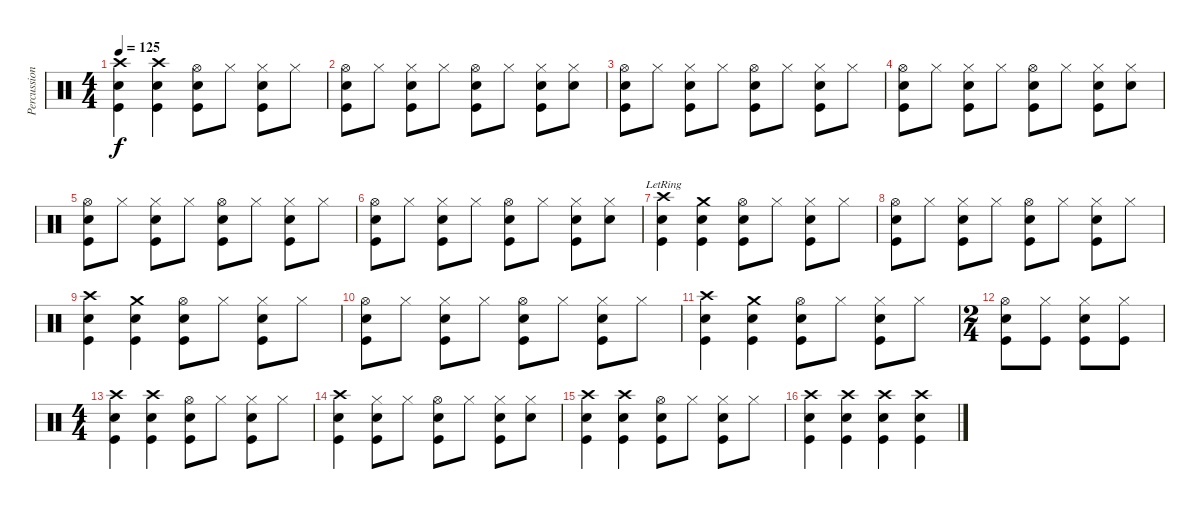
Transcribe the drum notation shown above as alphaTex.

\track ("Percussion" "Percussion") {instrument percussion}
\staff {score}
\articulation defaults
\ts (4 4)
\tempo 125
\clef neutral
\ks c
("Crash high (hit)" "Snare (hit) 2" "Kick (hit)").4{dy f} ("Crash high (hit)" "Snare (hit) 2" "Kick (hit)").4 ("Hi-Hat (open)" "Snare (hit) 2" "Kick (hit)").8 "Hi-Hat (closed)".8 ("Hi-Hat (closed)" "Snare (hit) 2" "Kick (hit)").8 "Hi-Hat (closed)".8 |
("Hi-Hat (open)" "Snare (hit) 2" "Kick (hit)").8 "Hi-Hat (closed)".8 ("Hi-Hat (closed)" "Snare (hit) 2" "Kick (hit)").8 "Hi-Hat (closed)".8 ("Hi-Hat (open)" "Snare (hit) 2" "Kick (hit)").8 "Hi-Hat (closed)".8 ("Hi-Hat (closed)" "Snare (hit) 2" "Kick (hit)").8 ("Hi-Hat (closed)" "Snare (hit) 2").8 |
("Hi-Hat (open)" "Snare (hit) 2" "Kick (hit)").8 "Hi-Hat (closed)".8 ("Hi-Hat (closed)" "Snare (hit) 2" "Kick (hit)").8 "Hi-Hat (closed)".8 ("Hi-Hat (open)" "Snare (hit) 2" "Kick (hit)").8 "Hi-Hat (closed)".8 ("Hi-Hat (closed)" "Snare (hit) 2" "Kick (hit)").8 "Hi-Hat (closed)".8 |
("Hi-Hat (open)" "Snare (hit) 2" "Kick (hit)").8 "Hi-Hat (closed)".8 ("Hi-Hat (closed)" "Snare (hit) 2" "Kick (hit)").8 "Hi-Hat (closed)".8 ("Hi-Hat (open)" "Snare (hit) 2" "Kick (hit)").8 "Hi-Hat (closed)".8 ("Hi-Hat (closed)" "Snare (hit) 2" "Kick (hit)").8 ("Hi-Hat (closed)" "Snare (hit) 2").8 |
("Hi-Hat (open)" "Snare (hit) 2" "Kick (hit)").8 "Hi-Hat (closed)".8 ("Hi-Hat (closed)" "Snare (hit) 2" "Kick (hit)").8 "Hi-Hat (closed)".8 ("Hi-Hat (open)" "Snare (hit) 2" "Kick (hit)").8 "Hi-Hat (closed)".8 ("Hi-Hat (closed)" "Snare (hit) 2" "Kick (hit)").8 "Hi-Hat (closed)".8 |
("Hi-Hat (open)" "Snare (hit) 2" "Kick (hit)").8 "Hi-Hat (closed)".8 ("Hi-Hat (closed)" "Snare (hit) 2" "Kick (hit)").8 "Hi-Hat (closed)".8 ("Hi-Hat (open)" "Snare (hit) 2" "Kick (hit)").8 "Hi-Hat (closed)".8 ("Hi-Hat (closed)" "Snare (hit) 2" "Kick (hit)").8 ("Hi-Hat (closed)" "Snare (hit) 2").8 |
("Crash high (hit)"{lr} "Snare (hit) 2" "Kick (hit)").4 ("Crash medium (hit)" "Snare (hit) 2" "Kick (hit)").4 ("Hi-Hat (open)" "Snare (hit) 2" "Kick (hit)").8 "Hi-Hat (closed)".8 ("Hi-Hat (closed)" "Snare (hit) 2" "Kick (hit)").8 "Hi-Hat (closed)".8 |
("Hi-Hat (open)" "Snare (hit) 2" "Kick (hit)").8 "Hi-Hat (closed)".8 ("Hi-Hat (closed)" "Snare (hit) 2" "Kick (hit)").8 "Hi-Hat (closed)".8 ("Hi-Hat (open)" "Snare (hit) 2" "Kick (hit)").8 "Hi-Hat (closed)".8 ("Hi-Hat (closed)" "Snare (hit) 2" "Kick (hit)").8 "Hi-Hat (closed)".8 |
("Crash high (hit)" "Snare (hit) 2" "Kick (hit)").4 ("Crash medium (hit)" "Snare (hit) 2" "Kick (hit)").4 ("Hi-Hat (open)" "Snare (hit) 2" "Kick (hit)").8 "Hi-Hat (closed)".8 ("Hi-Hat (closed)" "Snare (hit) 2" "Kick (hit)").8 "Hi-Hat (closed)".8 |
("Hi-Hat (open)" "Snare (hit) 2" "Kick (hit)").8 "Hi-Hat (closed)".8 ("Hi-Hat (closed)" "Snare (hit) 2" "Kick (hit)").8 "Hi-Hat (closed)".8 ("Hi-Hat (open)" "Snare (hit) 2" "Kick (hit)").8 "Hi-Hat (closed)".8 ("Hi-Hat (closed)" "Snare (hit) 2" "Kick (hit)").8 "Hi-Hat (closed)".8 |
("Crash high (hit)" "Snare (hit) 2" "Kick (hit)").4 ("Crash medium (hit)" "Snare (hit) 2" "Kick (hit)").4 ("Hi-Hat (open)" "Snare (hit) 2" "Kick (hit)").8 "Hi-Hat (closed)".8 ("Hi-Hat (closed)" "Snare (hit) 2" "Kick (hit)").8 "Hi-Hat (closed)".8 |
\ts (2 4)
("Hi-Hat (open)" "Snare (hit) 2" "Kick (hit)").8 ("Hi-Hat (closed)" "Kick (hit)").8 ("Hi-Hat (closed)" "Snare (hit) 2" "Kick (hit)").8 ("Hi-Hat (closed)" "Kick (hit)").8 |
\ts (4 4)
("Crash high (hit)" "Snare (hit) 2" "Kick (hit)").4 ("Crash high (hit)" "Snare (hit) 2" "Kick (hit)").4 ("Hi-Hat (open)" "Snare (hit) 2" "Kick (hit)").8 "Hi-Hat (closed)".8 ("Hi-Hat (closed)" "Snare (hit) 2" "Kick (hit)").8 "Hi-Hat (closed)".8 |
("Crash high (hit)" "Snare (hit) 2" "Kick (hit)").4 ("Hi-Hat (closed)" "Snare (hit) 2" "Kick (hit)").8 "Hi-Hat (closed)".8 ("Hi-Hat (open)" "Snare (hit) 2" "Kick (hit)").8 "Hi-Hat (closed)".8 ("Hi-Hat (closed)" "Snare (hit) 2" "Kick (hit)").8 ("Hi-Hat (closed)" "Snare (hit) 2").8 |
("Crash high (hit)" "Snare (hit) 2" "Kick (hit)").4 ("Crash high (hit)" "Snare (hit) 2" "Kick (hit)").4 ("Hi-Hat (open)" "Snare (hit) 2" "Kick (hit)").8 "Hi-Hat (closed)".8 ("Hi-Hat (closed)" "Snare (hit) 2" "Kick (hit)").8 "Hi-Hat (closed)".8 |
("Crash high (hit)" "Snare (hit) 2" "Kick (hit)").4 ("Crash high (hit)" "Snare (hit) 2" "Kick (hit)").4 ("Crash high (hit)" "Snare (hit) 2" "Kick (hit)").4 ("Crash high (hit)" "Snare (hit) 2" "Kick (hit)").4
